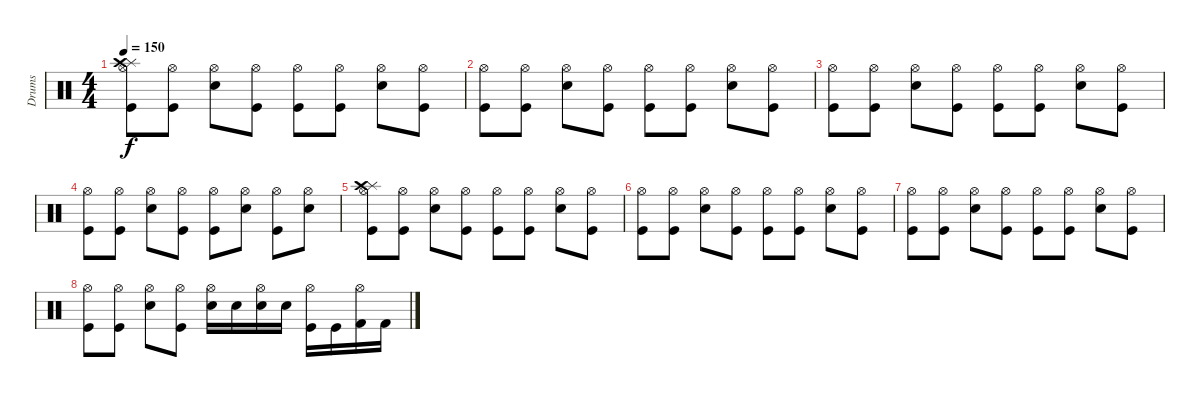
\track ("Drums" "Drums") {instrument percussion}
\staff {score}
\articulation defaults
\ts (4 4)
\tempo 150
\clef neutral
\ks c
("Splash (hit)" "Crash high (hit)" "Hi-Hat (open)" "Kick (hit)").8{dy f} ("Hi-Hat (open)" "Kick (hit)").8 ("Hi-Hat (open)" "Electric Snare (hit)").8 ("Hi-Hat (open)" "Kick (hit)").8 ("Hi-Hat (open)" "Kick (hit)").8 ("Hi-Hat (open)" "Kick (hit)").8 ("Hi-Hat (open)" "Electric Snare (hit)").8 ("Hi-Hat (open)" "Kick (hit)").8 |
("Hi-Hat (open)" "Kick (hit)").8 ("Hi-Hat (open)" "Kick (hit)").8 ("Hi-Hat (open)" "Electric Snare (hit)").8 ("Hi-Hat (open)" "Kick (hit)").8 ("Hi-Hat (open)" "Kick (hit)").8 ("Hi-Hat (open)" "Kick (hit)").8 ("Hi-Hat (open)" "Electric Snare (hit)").8 ("Hi-Hat (open)" "Kick (hit)").8 |
("Hi-Hat (open)" "Kick (hit)").8 ("Hi-Hat (open)" "Kick (hit)").8 ("Hi-Hat (open)" "Electric Snare (hit)").8 ("Hi-Hat (open)" "Kick (hit)").8 ("Hi-Hat (open)" "Kick (hit)").8 ("Hi-Hat (open)" "Kick (hit)").8 ("Hi-Hat (open)" "Electric Snare (hit)").8 ("Hi-Hat (open)" "Kick (hit)").8 |
("Hi-Hat (open)" "Kick (hit)").8 ("Hi-Hat (open)" "Kick (hit)").8 ("Hi-Hat (open)" "Electric Snare (hit)").8 ("Hi-Hat (open)" "Kick (hit)").8 ("Hi-Hat (open)" "Kick (hit)").8 ("Hi-Hat (open)" "Electric Snare (hit)").8 ("Hi-Hat (open)" "Kick (hit)").8 ("Hi-Hat (open)" "Electric Snare (hit)").8 |
("Splash (hit)" "Crash high (hit)" "Hi-Hat (open)" "Kick (hit)").8 ("Hi-Hat (open)" "Kick (hit)").8 ("Hi-Hat (open)" "Electric Snare (hit)").8 ("Hi-Hat (open)" "Kick (hit)").8 ("Hi-Hat (open)" "Kick (hit)").8 ("Hi-Hat (open)" "Kick (hit)").8 ("Hi-Hat (open)" "Electric Snare (hit)").8 ("Hi-Hat (open)" "Kick (hit)").8 |
("Hi-Hat (open)" "Kick (hit)").8 ("Hi-Hat (open)" "Kick (hit)").8 ("Hi-Hat (open)" "Electric Snare (hit)").8 ("Hi-Hat (open)" "Kick (hit)").8 ("Hi-Hat (open)" "Kick (hit)").8 ("Hi-Hat (open)" "Kick (hit)").8 ("Hi-Hat (open)" "Electric Snare (hit)").8 ("Hi-Hat (open)" "Kick (hit)").8 |
("Hi-Hat (open)" "Kick (hit)").8 ("Hi-Hat (open)" "Kick (hit)").8 ("Hi-Hat (open)" "Electric Snare (hit)").8 ("Hi-Hat (open)" "Kick (hit)").8 ("Hi-Hat (open)" "Kick (hit)").8 ("Hi-Hat (open)" "Kick (hit)").8 ("Hi-Hat (open)" "Electric Snare (hit)").8 ("Hi-Hat (open)" "Kick (hit)").8 |
("Hi-Hat (open)" "Kick (hit)").8 ("Hi-Hat (open)" "Kick (hit)").8 ("Hi-Hat (open)" "Electric Snare (hit)").8 ("Hi-Hat (open)" "Kick (hit)").8 ("Hi-Hat (open)" "Electric Snare (hit)").16 "Electric Snare (hit)".16 ("Hi-Hat (open)" "Snare (hit) 2").16 "Snare (hit) 2".16 ("Hi-Hat (open)" "Kick (hit)").16 "Kick (hit)".16 ("Hi-Hat (open)" "Kick (hit) 2").16 "Kick (hit) 2".16
